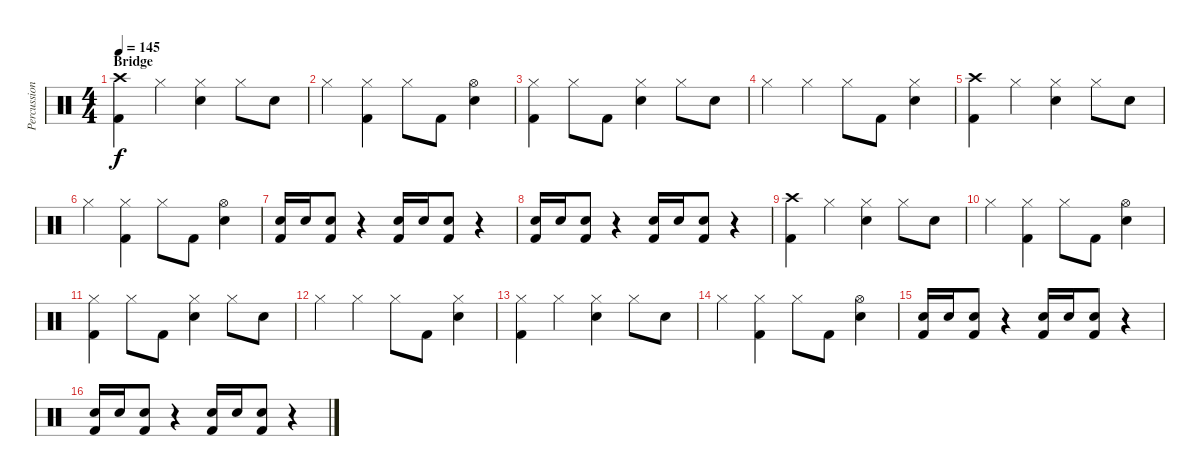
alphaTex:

\track ("Percussion" "Percussion") {instrument percussion}
\staff {score}
\articulation defaults
\ts (4 4)
\section ("" "Bridge")
\tempo 145
\clef neutral
\ks c
("Kick (hit) 2" "Crash high (hit)").4{dy f} "Hi-Hat (closed)".4 ("Electric Snare (hit)" "Hi-Hat (closed)").4 "Hi-Hat (closed)".8 "Electric Snare (hit)".8 |
"Hi-Hat (closed)".4 ("Kick (hit) 2" "Hi-Hat (closed)").4 "Hi-Hat (closed)".8 "Kick (hit) 2".8 ("Electric Snare (hit)" "Hi-Hat (open)").4 |
("Kick (hit) 2" "Hi-Hat (closed)").4 "Hi-Hat (closed)".8 "Kick (hit) 2".8 ("Electric Snare (hit)" "Hi-Hat (closed)").4 "Hi-Hat (closed)".8 "Electric Snare (hit)".8 |
"Hi-Hat (closed)".4 "Hi-Hat (closed)".4 "Hi-Hat (closed)".8 "Kick (hit) 2".8 ("Electric Snare (hit)" "Hi-Hat (closed)").4 |
("Kick (hit) 2" "Crash high (hit)").4 "Hi-Hat (closed)".4 ("Electric Snare (hit)" "Hi-Hat (closed)").4 "Hi-Hat (closed)".8 "Electric Snare (hit)".8 |
"Hi-Hat (closed)".4 ("Kick (hit) 2" "Hi-Hat (closed)").4 "Hi-Hat (closed)".8 "Kick (hit) 2".8 ("Electric Snare (hit)" "Hi-Hat (open)").4 |
("Electric Snare (hit)" "Kick (hit) 2").16 "Electric Snare (hit)".16 ("Electric Snare (hit)" "Kick (hit) 2").8 r.4 ("Electric Snare (hit)" "Kick (hit) 2").16 "Electric Snare (hit)".16 ("Electric Snare (hit)" "Kick (hit) 2").8 r.4 |
("Electric Snare (hit)" "Kick (hit) 2").16 "Electric Snare (hit)".16 ("Electric Snare (hit)" "Kick (hit) 2").8 r.4 ("Electric Snare (hit)" "Kick (hit) 2").16 "Electric Snare (hit)".16 ("Electric Snare (hit)" "Kick (hit) 2").8 r.4 |
("Kick (hit) 2" "Crash high (hit)").4 "Hi-Hat (closed)".4 ("Electric Snare (hit)" "Hi-Hat (closed)").4 "Hi-Hat (closed)".8 "Electric Snare (hit)".8 |
"Hi-Hat (closed)".4 ("Kick (hit) 2" "Hi-Hat (closed)").4 "Hi-Hat (closed)".8 "Kick (hit) 2".8 ("Electric Snare (hit)" "Hi-Hat (open)").4 |
("Kick (hit) 2" "Hi-Hat (closed)").4 "Hi-Hat (closed)".8 "Kick (hit) 2".8 ("Electric Snare (hit)" "Hi-Hat (closed)").4 "Hi-Hat (closed)".8 "Electric Snare (hit)".8 |
"Hi-Hat (closed)".4 "Hi-Hat (closed)".4 "Hi-Hat (closed)".8 "Kick (hit) 2".8 ("Electric Snare (hit)" "Hi-Hat (closed)").4 |
("Kick (hit) 2" "Hi-Hat (closed)").4 "Hi-Hat (closed)".4 ("Electric Snare (hit)" "Hi-Hat (closed)").4 "Hi-Hat (closed)".8 "Electric Snare (hit)".8 |
"Hi-Hat (closed)".4 ("Kick (hit) 2" "Hi-Hat (closed)").4 "Hi-Hat (closed)".8 "Kick (hit) 2".8 ("Electric Snare (hit)" "Hi-Hat (open)").4 |
("Electric Snare (hit)" "Kick (hit) 2").16 "Electric Snare (hit)".16 ("Electric Snare (hit)" "Kick (hit) 2").8 r.4 ("Electric Snare (hit)" "Kick (hit) 2").16 "Electric Snare (hit)".16 ("Electric Snare (hit)" "Kick (hit) 2").8 r.4 |
("Electric Snare (hit)" "Kick (hit) 2").16 "Electric Snare (hit)".16 ("Electric Snare (hit)" "Kick (hit) 2").8 r.4 ("Electric Snare (hit)" "Kick (hit) 2").16 "Electric Snare (hit)".16 ("Electric Snare (hit)" "Kick (hit) 2").8 r.4
